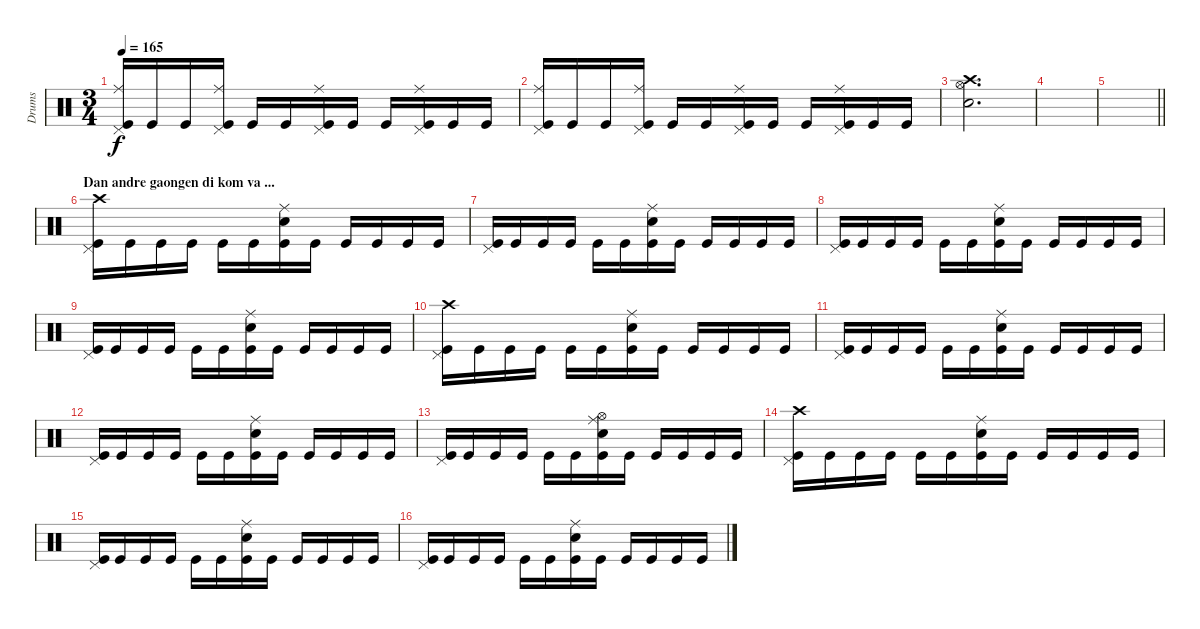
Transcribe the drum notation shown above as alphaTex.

\track ("Drums" "Drums") {instrument percussion}
\staff {score}
\articulation defaults
\ts (3 4)
\tempo 165
\clef neutral
\ks c
("Pedal Hi-Hat (hit)" "Ride (middle)" "Kick (hit)").16{dy f} "Kick (hit)".16 "Kick (hit)".16 ("Pedal Hi-Hat (hit)" "Ride (middle)" "Kick (hit)").16 "Kick (hit)".16 "Kick (hit)".16 ("Pedal Hi-Hat (hit)" "Ride (middle)" "Kick (hit)").16 "Kick (hit)".16 "Kick (hit)".16 ("Pedal Hi-Hat (hit)" "Ride (middle)" "Kick (hit)").16 "Kick (hit)".16 "Kick (hit)".16 |
("Pedal Hi-Hat (hit)" "Ride (middle)" "Kick (hit)").16 "Kick (hit)".16 "Kick (hit)".16 ("Pedal Hi-Hat (hit)" "Ride (middle)" "Kick (hit)").16 "Kick (hit)".16 "Kick (hit)".16 ("Pedal Hi-Hat (hit)" "Ride (middle)" "Kick (hit)").16 "Kick (hit)".16 "Kick (hit)".16 ("Pedal Hi-Hat (hit)" "Ride (middle)" "Kick (hit)").16 "Kick (hit)".16 "Kick (hit)".16 |
("Crash high (hit)" "Hi-Hat (open)" "Snare (hit) 2").2{d} |
|
\barLineRight lightlight
|
\section ("" "Dan andre gaongen di kom va ...")
("Crash high (hit)" "Pedal Hi-Hat (hit)" "Kick (hit)").16 "Kick (hit)".16 "Kick (hit)".16 "Kick (hit)".16 "Kick (hit)".16 "Kick (hit)".16 ("Ride (middle)" "Snare (hit) 2" "Kick (hit)").16 "Kick (hit)".16 "Kick (hit)".16 "Kick (hit)".16 "Kick (hit)".16 "Kick (hit)".16 |
("Pedal Hi-Hat (hit)" "Kick (hit)").16 "Kick (hit)".16 "Kick (hit)".16 "Kick (hit)".16 "Kick (hit)".16 "Kick (hit)".16 ("Ride (middle)" "Snare (hit) 2" "Kick (hit)").16 "Kick (hit)".16 "Kick (hit)".16 "Kick (hit)".16 "Kick (hit)".16 "Kick (hit)".16 |
("Pedal Hi-Hat (hit)" "Kick (hit)").16 "Kick (hit)".16 "Kick (hit)".16 "Kick (hit)".16 "Kick (hit)".16 "Kick (hit)".16 ("Ride (middle)" "Snare (hit) 2" "Kick (hit)").16 "Kick (hit)".16 "Kick (hit)".16 "Kick (hit)".16 "Kick (hit)".16 "Kick (hit)".16 |
("Pedal Hi-Hat (hit)" "Kick (hit)").16 "Kick (hit)".16 "Kick (hit)".16 "Kick (hit)".16 "Kick (hit)".16 "Kick (hit)".16 ("Ride (middle)" "Snare (hit) 2" "Kick (hit)").16 "Kick (hit)".16 "Kick (hit)".16 "Kick (hit)".16 "Kick (hit)".16 "Kick (hit)".16 |
("Crash high (hit)" "Pedal Hi-Hat (hit)" "Kick (hit)").16 "Kick (hit)".16 "Kick (hit)".16 "Kick (hit)".16 "Kick (hit)".16 "Kick (hit)".16 ("Ride (middle)" "Snare (hit) 2" "Kick (hit)").16 "Kick (hit)".16 "Kick (hit)".16 "Kick (hit)".16 "Kick (hit)".16 "Kick (hit)".16 |
("Pedal Hi-Hat (hit)" "Kick (hit)").16 "Kick (hit)".16 "Kick (hit)".16 "Kick (hit)".16 "Kick (hit)".16 "Kick (hit)".16 ("Ride (middle)" "Snare (hit) 2" "Kick (hit)").16 "Kick (hit)".16 "Kick (hit)".16 "Kick (hit)".16 "Kick (hit)".16 "Kick (hit)".16 |
("Pedal Hi-Hat (hit)" "Kick (hit)").16 "Kick (hit)".16 "Kick (hit)".16 "Kick (hit)".16 "Kick (hit)".16 "Kick (hit)".16 ("Ride (middle)" "Snare (hit) 2" "Kick (hit)").16 "Kick (hit)".16 "Kick (hit)".16 "Kick (hit)".16 "Kick (hit)".16 "Kick (hit)".16 |
("Pedal Hi-Hat (hit)" "Kick (hit)").16 "Kick (hit)".16 "Kick (hit)".16 "Kick (hit)".16 "Kick (hit)".16 "Kick (hit)".16 ("Hi-Hat (open)" "Ride (middle)" "Snare (hit) 2" "Kick (hit)").16 "Kick (hit)".16 "Kick (hit)".16 "Kick (hit)".16 "Kick (hit)".16 "Kick (hit)".16 |
("Crash high (hit)" "Pedal Hi-Hat (hit)" "Kick (hit)").16 "Kick (hit)".16 "Kick (hit)".16 "Kick (hit)".16 "Kick (hit)".16 "Kick (hit)".16 ("Ride (middle)" "Snare (hit) 2" "Kick (hit)").16 "Kick (hit)".16 "Kick (hit)".16 "Kick (hit)".16 "Kick (hit)".16 "Kick (hit)".16 |
("Pedal Hi-Hat (hit)" "Kick (hit)").16 "Kick (hit)".16 "Kick (hit)".16 "Kick (hit)".16 "Kick (hit)".16 "Kick (hit)".16 ("Ride (middle)" "Snare (hit) 2" "Kick (hit)").16 "Kick (hit)".16 "Kick (hit)".16 "Kick (hit)".16 "Kick (hit)".16 "Kick (hit)".16 |
("Pedal Hi-Hat (hit)" "Kick (hit)").16 "Kick (hit)".16 "Kick (hit)".16 "Kick (hit)".16 "Kick (hit)".16 "Kick (hit)".16 ("Ride (middle)" "Snare (hit) 2" "Kick (hit)").16 "Kick (hit)".16 "Kick (hit)".16 "Kick (hit)".16 "Kick (hit)".16 "Kick (hit)".16
